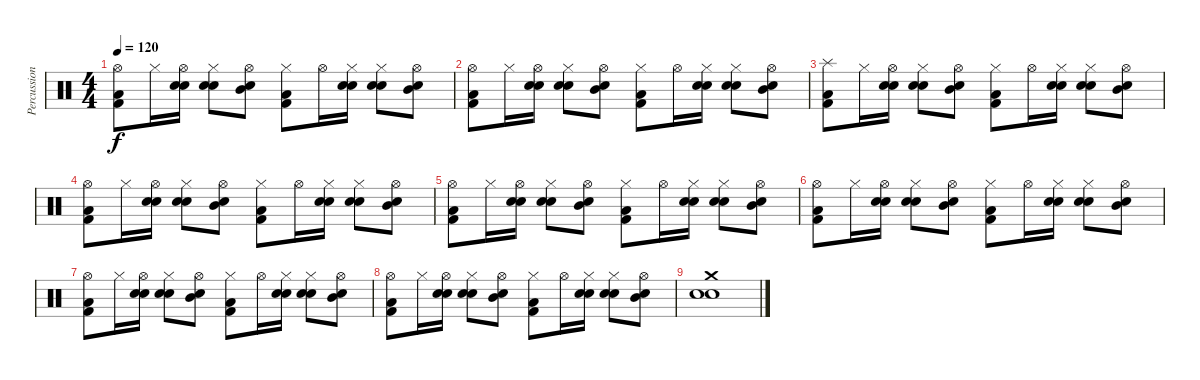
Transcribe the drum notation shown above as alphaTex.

\track ("Percussions" "Percussion") {instrument percussion}
\staff {score}
\articulation defaults
\ts (4 4)
\tempo 120
\clef neutral
\ks c
("Hi-Hat (open)" "Kick (hit) 2" "Low Floor Tom (hit)").8{dy f} "Hi-Hat (closed)".16 ("Hi-Hat (open)" "Snare (hit) 2" "Electric Snare (hit)").16 ("Hi-Hat (closed)" "Snare (hit) 2" "Electric Snare (hit)").8 ("Hi-Hat (open)" "Snare (hit) 2" "Mid Tom (hit)").8 ("Hi-Hat (closed)" "Kick (hit) 2" "Low Floor Tom (hit)").8 "Hi-Hat (open)".16 ("Hi-Hat (closed)" "Snare (hit) 2" "Electric Snare (hit)").16 ("Hi-Hat (closed)" "Snare (hit) 2" "Electric Snare (hit)").8 ("Hi-Hat (open)" "Snare (hit) 2" "Mid Tom (hit)").8 |
("Hi-Hat (open)" "Kick (hit) 2" "Low Floor Tom (hit)").8 "Hi-Hat (closed)".16 ("Hi-Hat (open)" "Snare (hit) 2" "Electric Snare (hit)").16 ("Hi-Hat (closed)" "Snare (hit) 2" "Electric Snare (hit)").8 ("Hi-Hat (open)" "Snare (hit) 2" "Mid Tom (hit)").8 ("Hi-Hat (closed)" "Kick (hit) 2" "Low Floor Tom (hit)").8 "Hi-Hat (open)".16 ("Hi-Hat (closed)" "Snare (hit) 2" "Electric Snare (hit)").16 ("Hi-Hat (closed)" "Snare (hit) 2" "Electric Snare (hit)").8 ("Hi-Hat (open)" "Snare (hit) 2" "Mid Tom (hit)").8 |
("Splash (hit)" "Kick (hit) 2" "Low Floor Tom (hit)").8 "Hi-Hat (closed)".16 ("Hi-Hat (open)" "Snare (hit) 2" "Electric Snare (hit)").16 ("Hi-Hat (closed)" "Snare (hit) 2" "Electric Snare (hit)").8 ("Hi-Hat (open)" "Snare (hit) 2" "Mid Tom (hit)").8 ("Hi-Hat (closed)" "Kick (hit) 2" "Low Floor Tom (hit)").8 "Hi-Hat (open)".16 ("Hi-Hat (closed)" "Snare (hit) 2" "Electric Snare (hit)").16 ("Hi-Hat (closed)" "Snare (hit) 2" "Electric Snare (hit)").8 ("Hi-Hat (open)" "Snare (hit) 2" "Mid Tom (hit)").8 |
("Hi-Hat (open)" "Kick (hit) 2" "Low Floor Tom (hit)").8 "Hi-Hat (closed)".16 ("Hi-Hat (open)" "Snare (hit) 2" "Electric Snare (hit)").16 ("Hi-Hat (closed)" "Snare (hit) 2" "Electric Snare (hit)").8 ("Hi-Hat (open)" "Snare (hit) 2" "Mid Tom (hit)").8 ("Hi-Hat (closed)" "Kick (hit) 2" "Low Floor Tom (hit)").8 "Hi-Hat (open)".16 ("Hi-Hat (closed)" "Snare (hit) 2" "Electric Snare (hit)").16 ("Hi-Hat (closed)" "Snare (hit) 2" "Electric Snare (hit)").8 ("Hi-Hat (open)" "Snare (hit) 2" "Mid Tom (hit)").8 |
("Hi-Hat (open)" "Kick (hit) 2" "Low Floor Tom (hit)").8 "Hi-Hat (closed)".16 ("Hi-Hat (open)" "Snare (hit) 2" "Electric Snare (hit)").16 ("Hi-Hat (closed)" "Snare (hit) 2" "Electric Snare (hit)").8 ("Hi-Hat (open)" "Snare (hit) 2" "Mid Tom (hit)").8 ("Hi-Hat (closed)" "Kick (hit) 2" "Low Floor Tom (hit)").8 "Hi-Hat (open)".16 ("Hi-Hat (closed)" "Snare (hit) 2" "Electric Snare (hit)").16 ("Hi-Hat (closed)" "Snare (hit) 2" "Electric Snare (hit)").8 ("Hi-Hat (open)" "Snare (hit) 2" "Mid Tom (hit)").8 |
("Hi-Hat (open)" "Kick (hit) 2" "Low Floor Tom (hit)").8 "Hi-Hat (closed)".16 ("Hi-Hat (open)" "Snare (hit) 2" "Electric Snare (hit)").16 ("Hi-Hat (closed)" "Snare (hit) 2" "Electric Snare (hit)").8 ("Hi-Hat (open)" "Snare (hit) 2" "Mid Tom (hit)").8 ("Hi-Hat (closed)" "Kick (hit) 2" "Low Floor Tom (hit)").8 "Hi-Hat (open)".16 ("Hi-Hat (closed)" "Snare (hit) 2" "Electric Snare (hit)").16 ("Hi-Hat (closed)" "Snare (hit) 2" "Electric Snare (hit)").8 ("Hi-Hat (open)" "Snare (hit) 2" "Mid Tom (hit)").8 |
("Hi-Hat (open)" "Kick (hit) 2" "Low Floor Tom (hit)").8 "Hi-Hat (closed)".16 ("Hi-Hat (open)" "Snare (hit) 2" "Electric Snare (hit)").16 ("Hi-Hat (closed)" "Snare (hit) 2" "Electric Snare (hit)").8 ("Hi-Hat (open)" "Snare (hit) 2" "Mid Tom (hit)").8 ("Hi-Hat (closed)" "Kick (hit) 2" "Low Floor Tom (hit)").8 "Hi-Hat (open)".16 ("Hi-Hat (closed)" "Snare (hit) 2" "Electric Snare (hit)").16 ("Hi-Hat (closed)" "Snare (hit) 2" "Electric Snare (hit)").8 ("Hi-Hat (open)" "Snare (hit) 2" "Mid Tom (hit)").8 |
("Hi-Hat (open)" "Kick (hit) 2" "Low Floor Tom (hit)").8 "Hi-Hat (closed)".16 ("Hi-Hat (open)" "Snare (hit) 2" "Electric Snare (hit)").16 ("Hi-Hat (closed)" "Snare (hit) 2" "Electric Snare (hit)").8 ("Hi-Hat (open)" "Snare (hit) 2" "Mid Tom (hit)").8 ("Hi-Hat (closed)" "Kick (hit) 2" "Low Floor Tom (hit)").8 "Hi-Hat (open)".16 ("Hi-Hat (closed)" "Snare (hit) 2" "Electric Snare (hit)").16 ("Hi-Hat (closed)" "Snare (hit) 2" "Electric Snare (hit)").8 ("Hi-Hat (open)" "Snare (hit) 2" "Mid Tom (hit)").8 |
("Crash medium (hit)" "Snare (hit) 2" "Electric Snare (hit)").1
